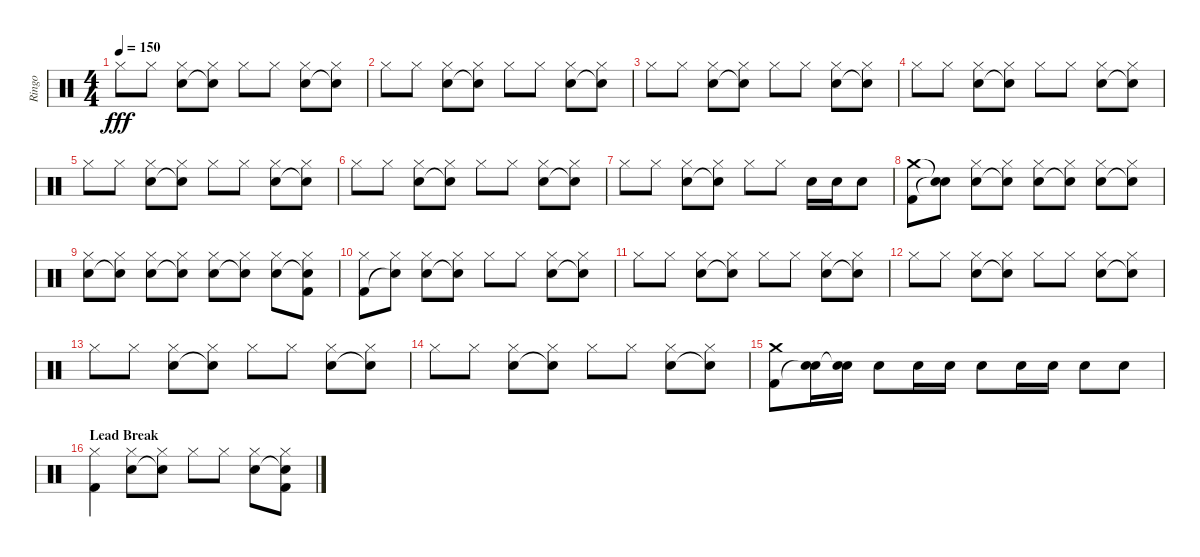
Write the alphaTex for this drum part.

\track ("Ringo" "Ringo") {instrument percussion}
\staff {score}
\articulation defaults
\ts (4 4)
\tempo 150
\clef neutral
\ks c "Hi-Hat (closed)".8{dy fff} "Hi-Hat (closed)".8
("Hi-Hat (closed)" "Snare (hit) 2").8 ("Hi-Hat (closed)" "Snare (hit)"{t}).8 "Hi-Hat (closed)".8 "Hi-Hat (closed)".8 ("Hi-Hat (closed)" "Snare (hit) 2").8 ("Hi-Hat (closed)" "Snare (hit)"{t}).8 |
"Hi-Hat (closed)".8 "Hi-Hat (closed)".8 ("Hi-Hat (closed)" "Snare (hit) 2").8 ("Hi-Hat (closed)" "Snare (hit)"{t}).8 "Hi-Hat (closed)".8 "Hi-Hat (closed)".8 ("Hi-Hat (closed)" "Snare (hit) 2").8 ("Hi-Hat (closed)" "Snare (hit)"{t}).8 |
"Hi-Hat (closed)".8 "Hi-Hat (closed)".8 ("Hi-Hat (closed)" "Snare (hit) 2").8 ("Hi-Hat (closed)" "Snare (hit)"{t}).8 "Hi-Hat (closed)".8 "Hi-Hat (closed)".8 ("Hi-Hat (closed)" "Snare (hit) 2").8 ("Hi-Hat (closed)" "Snare (hit)"{t}).8 |
"Hi-Hat (closed)".8 "Hi-Hat (closed)".8 ("Hi-Hat (closed)" "Snare (hit) 2").8 ("Hi-Hat (closed)" "Snare (hit)"{t}).8 "Hi-Hat (closed)".8 "Hi-Hat (closed)".8 ("Hi-Hat (closed)" "Snare (hit) 2").8 ("Hi-Hat (closed)" "Snare (hit)"{t}).8 |
"Hi-Hat (closed)".8 "Hi-Hat (closed)".8 ("Hi-Hat (closed)" "Snare (hit) 2").8 ("Hi-Hat (closed)" "Snare (hit)"{t}).8 "Hi-Hat (closed)".8 "Hi-Hat (closed)".8 ("Hi-Hat (closed)" "Snare (hit) 2").8 ("Hi-Hat (closed)" "Snare (hit)"{t}).8 |
"Hi-Hat (closed)".8 "Hi-Hat (closed)".8 ("Hi-Hat (closed)" "Snare (hit) 2").8 ("Hi-Hat (closed)" "Snare (hit)"{t}).8 "Hi-Hat (closed)".8 "Hi-Hat (closed)".8 ("Hi-Hat (closed)" "Snare (hit) 2").8 ("Hi-Hat (closed)" "Snare (hit)"{t}).8 |
"Hi-Hat (closed)".8 "Hi-Hat (closed)".8 ("Hi-Hat (closed)" "Snare (hit) 2").8 ("Hi-Hat (closed)" "Snare (hit)"{t}).8 "Hi-Hat (closed)".8 "Hi-Hat (closed)".8 "Snare (hit) 2".16 "Snare (hit) 2".16 "Snare (hit) 2".8 |
("Crash medium (hit)" "Kick (hit) 2").8 ("Snare (hit)"{t} "Snare (hit)"{t}).8 ("Hi-Hat (closed)" "Snare (hit) 2").8 ("Hi-Hat (closed)" "Snare (hit)"{t}).8 ("Hi-Hat (closed)" "Snare (hit) 2").8 ("Hi-Hat (closed)" "Snare (hit)"{t}).8 ("Hi-Hat (closed)" "Snare (hit) 2").8 ("Hi-Hat (closed)" "Snare (hit)"{t}).8 |
("Hi-Hat (closed)" "Snare (hit) 2").8 ("Hi-Hat (closed)" "Snare (hit)"{t}).8 ("Hi-Hat (closed)" "Snare (hit) 2").8 ("Hi-Hat (closed)" "Snare (hit)"{t}).8 ("Hi-Hat (closed)" "Snare (hit) 2").8 ("Hi-Hat (closed)" "Snare (hit)"{t}).8 ("Hi-Hat (closed)" "Snare (hit) 2").8 ("Hi-Hat (closed)" "Snare (hit)"{t} "Kick (hit) 2").8 |
("Hi-Hat (closed)" "Kick (hit) 2").8 ("Hi-Hat (closed)" "Snare (hit)"{t}).8 ("Hi-Hat (closed)" "Snare (hit) 2").8 ("Hi-Hat (closed)" "Snare (hit)"{t}).8 "Hi-Hat (closed)".8 "Hi-Hat (closed)".8 ("Hi-Hat (closed)" "Snare (hit) 2").8 ("Hi-Hat (closed)" "Snare (hit)"{t}).8 |
"Hi-Hat (closed)".8 "Hi-Hat (closed)".8 ("Hi-Hat (closed)" "Snare (hit) 2").8 ("Hi-Hat (closed)" "Snare (hit)"{t}).8 "Hi-Hat (closed)".8 "Hi-Hat (closed)".8 ("Hi-Hat (closed)" "Snare (hit) 2").8 ("Hi-Hat (closed)" "Snare (hit)"{t}).8 |
"Hi-Hat (closed)".8 "Hi-Hat (closed)".8 ("Hi-Hat (closed)" "Snare (hit) 2").8 ("Hi-Hat (closed)" "Snare (hit)"{t}).8 "Hi-Hat (closed)".8 "Hi-Hat (closed)".8 ("Hi-Hat (closed)" "Snare (hit) 2").8 ("Hi-Hat (closed)" "Snare (hit)"{t}).8 |
"Hi-Hat (closed)".8 "Hi-Hat (closed)".8 ("Hi-Hat (closed)" "Snare (hit) 2").8 ("Hi-Hat (closed)" "Snare (hit)"{t}).8 "Hi-Hat (closed)".8 "Hi-Hat (closed)".8 ("Hi-Hat (closed)" "Snare (hit) 2").8 ("Hi-Hat (closed)" "Snare (hit)"{t}).8 |
"Hi-Hat (closed)".8 "Hi-Hat (closed)".8 ("Hi-Hat (closed)" "Snare (hit) 2").8 ("Hi-Hat (closed)" "Snare (hit)"{t}).8 "Hi-Hat (closed)".8 "Hi-Hat (closed)".8 ("Hi-Hat (closed)" "Snare (hit) 2").8 ("Hi-Hat (closed)" "Snare (hit)"{t}).8 |
("Crash medium (hit)" "Kick (hit) 2").8 ("Snare (hit) 2" "Snare (hit)"{t}).16 ("Snare (hit) 2" "Snare (hit)"{t}).16 "Snare (hit) 2".8 "Snare (hit) 2".16 "Snare (hit) 2".16 "Snare (hit) 2".8 "Snare (hit) 2".16 "Snare (hit) 2".16 "Snare (hit) 2".8 "Snare (hit) 2".8 |
\section ("" "Lead Break")
("Hi-Hat (closed)" "Kick (hit) 2").4 ("Hi-Hat (closed)" "Snare (hit) 2").8 ("Hi-Hat (closed)" "Snare (hit)"{t}).8 "Hi-Hat (closed)".8 "Hi-Hat (closed)".8 ("Hi-Hat (closed)" "Snare (hit) 2").8 ("Hi-Hat (closed)" "Snare (hit)"{t} "Kick (hit) 2").8
